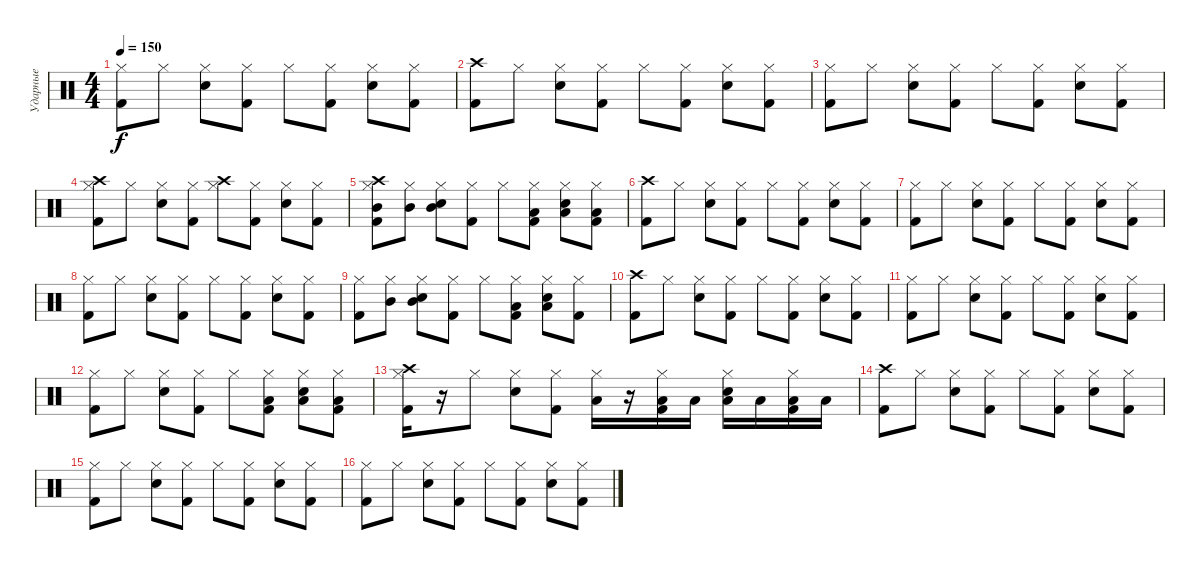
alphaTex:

\track ("Ударные" "Ударные") {instrument percussion}
\staff {score}
\articulation defaults
\ts (4 4)
\tempo 150
\clef neutral
\ks c
("Hi-Hat (closed)" "Kick (hit) 2").8{dy f} "Hi-Hat (closed)".8 ("Hi-Hat (closed)" "Snare (hit) 2").8 ("Hi-Hat (closed)" "Kick (hit) 2").8 "Hi-Hat (closed)".8 ("Hi-Hat (closed)" "Kick (hit) 2").8 ("Hi-Hat (closed)" "Snare (hit) 2").8 ("Hi-Hat (closed)" "Kick (hit) 2").8 |
("Crash high (hit)" "Kick (hit) 2").8 "Hi-Hat (closed)".8 ("Hi-Hat (closed)" "Snare (hit) 2").8 ("Hi-Hat (closed)" "Kick (hit) 2").8 "Hi-Hat (closed)".8 ("Hi-Hat (closed)" "Kick (hit) 2").8 ("Hi-Hat (closed)" "Snare (hit) 2").8 ("Hi-Hat (closed)" "Kick (hit) 2").8 |
("Hi-Hat (closed)" "Kick (hit) 2").8 "Hi-Hat (closed)".8 ("Hi-Hat (closed)" "Snare (hit) 2").8 ("Hi-Hat (closed)" "Kick (hit) 2").8 "Hi-Hat (closed)".8 ("Hi-Hat (closed)" "Kick (hit) 2").8 ("Hi-Hat (closed)" "Snare (hit) 2").8 ("Hi-Hat (closed)" "Kick (hit) 2").8 |
("Hi-Hat (closed)" "Crash high (hit)" "Kick (hit) 2").8 "Hi-Hat (closed)".8 ("Hi-Hat (closed)" "Snare (hit) 2").8 ("Hi-Hat (closed)" "Kick (hit) 2").8 ("Hi-Hat (closed)" "Crash high (hit)").8 ("Hi-Hat (closed)" "Kick (hit) 2").8 ("Hi-Hat (closed)" "Snare (hit) 2").8 ("Hi-Hat (closed)" "Kick (hit) 2").8 |
("Hi-Hat (closed)" "Crash high (hit)" "Mid Tom (hit)" "Kick (hit) 2").8 ("Hi-Hat (closed)" "Mid Tom (hit)").8 ("Hi-Hat (closed)" "Mid Tom (hit)" "Snare (hit) 2").8 ("Hi-Hat (closed)" "Kick (hit) 2").8 "Hi-Hat (closed)".8 ("Hi-Hat (closed)" "Low Tom (hit)" "Kick (hit) 2").8 ("Hi-Hat (closed)" "Low Tom (hit)" "Snare (hit) 2").8 ("Hi-Hat (closed)" "Low Tom (hit)" "Kick (hit) 2").8 |
("Crash high (hit)" "Kick (hit) 2").8 "Hi-Hat (closed)".8 ("Hi-Hat (closed)" "Snare (hit) 2").8 ("Hi-Hat (closed)" "Kick (hit) 2").8 "Hi-Hat (closed)".8 ("Hi-Hat (closed)" "Kick (hit) 2").8 ("Hi-Hat (closed)" "Snare (hit) 2").8 ("Hi-Hat (closed)" "Kick (hit) 2").8 |
("Hi-Hat (closed)" "Kick (hit) 2").8 "Hi-Hat (closed)".8 ("Hi-Hat (closed)" "Snare (hit) 2").8 ("Hi-Hat (closed)" "Kick (hit) 2").8 "Hi-Hat (closed)".8 ("Hi-Hat (closed)" "Kick (hit) 2").8 ("Hi-Hat (closed)" "Snare (hit) 2").8 ("Hi-Hat (closed)" "Kick (hit) 2").8 |
("Hi-Hat (closed)" "Kick (hit) 2").8 "Hi-Hat (closed)".8 ("Hi-Hat (closed)" "Snare (hit) 2").8 ("Hi-Hat (closed)" "Kick (hit) 2").8 "Hi-Hat (closed)".8 ("Hi-Hat (closed)" "Kick (hit) 2").8 ("Hi-Hat (closed)" "Snare (hit) 2").8 ("Hi-Hat (closed)" "Kick (hit) 2").8 |
("Hi-Hat (closed)" "Kick (hit) 2").8 ("Hi-Hat (closed)" "Mid Tom (hit)").8 ("Hi-Hat (closed)" "Mid Tom (hit)" "Snare (hit) 2").8 ("Hi-Hat (closed)" "Kick (hit) 2").8 "Hi-Hat (closed)".8 ("Hi-Hat (closed)" "Low Tom (hit)" "Kick (hit) 2").8 ("Hi-Hat (closed)" "Low Tom (hit)" "Snare (hit) 2").8 ("Hi-Hat (closed)" "Kick (hit) 2").8 |
("Crash high (hit)" "Kick (hit) 2").8 "Hi-Hat (closed)".8 ("Hi-Hat (closed)" "Snare (hit) 2").8 ("Hi-Hat (closed)" "Kick (hit) 2").8 "Hi-Hat (closed)".8 ("Hi-Hat (closed)" "Kick (hit) 2").8 ("Hi-Hat (closed)" "Snare (hit) 2").8 ("Hi-Hat (closed)" "Kick (hit) 2").8 |
("Hi-Hat (closed)" "Kick (hit) 2").8 "Hi-Hat (closed)".8 ("Hi-Hat (closed)" "Snare (hit) 2").8 ("Hi-Hat (closed)" "Kick (hit) 2").8 "Hi-Hat (closed)".8 ("Hi-Hat (closed)" "Kick (hit) 2").8 ("Hi-Hat (closed)" "Snare (hit) 2").8 ("Hi-Hat (closed)" "Kick (hit) 2").8 |
("Hi-Hat (closed)" "Kick (hit) 2").8 "Hi-Hat (closed)".8 ("Hi-Hat (closed)" "Snare (hit) 2").8 ("Hi-Hat (closed)" "Kick (hit) 2").8 "Hi-Hat (closed)".8 ("Hi-Hat (closed)" "Low Tom (hit)" "Kick (hit) 2").8 ("Hi-Hat (closed)" "Low Tom (hit)" "Snare (hit) 2").8 ("Hi-Hat (closed)" "Low Tom (hit)" "Kick (hit) 2").8 |
("Crash high (hit)" "Hi-Hat (closed)" "Kick (hit) 2").16 r.16 "Hi-Hat (closed)".8 ("Hi-Hat (closed)" "Snare (hit) 2").8 ("Hi-Hat (closed)" "Kick (hit) 2").8 ("Low Tom (hit)" "Hi-Hat (closed)").16 r.16 ("Low Tom (hit)" "Hi-Hat (closed)" "Kick (hit) 2").16 "Low Tom (hit)".16 ("Low Tom (hit)" "Hi-Hat (closed)" "Snare (hit) 2").16 "Low Tom (hit)".16 ("Low Tom (hit)" "Hi-Hat (closed)" "Kick (hit) 2").16 "Low Tom (hit)".16 |
("Crash high (hit)" "Kick (hit) 2").8 "Hi-Hat (closed)".8 ("Hi-Hat (closed)" "Snare (hit) 2").8 ("Hi-Hat (closed)" "Kick (hit) 2").8 "Hi-Hat (closed)".8 ("Hi-Hat (closed)" "Kick (hit) 2").8 ("Hi-Hat (closed)" "Snare (hit) 2").8 ("Hi-Hat (closed)" "Kick (hit) 2").8 |
("Hi-Hat (closed)" "Kick (hit) 2").8 "Hi-Hat (closed)".8 ("Hi-Hat (closed)" "Snare (hit) 2").8 ("Hi-Hat (closed)" "Kick (hit) 2").8 "Hi-Hat (closed)".8 ("Hi-Hat (closed)" "Kick (hit) 2").8 ("Hi-Hat (closed)" "Snare (hit) 2").8 ("Hi-Hat (closed)" "Kick (hit) 2").8 |
("Hi-Hat (closed)" "Kick (hit) 2").8 "Hi-Hat (closed)".8 ("Hi-Hat (closed)" "Snare (hit) 2").8 ("Hi-Hat (closed)" "Kick (hit) 2").8 "Hi-Hat (closed)".8 ("Hi-Hat (closed)" "Kick (hit) 2").8 ("Hi-Hat (closed)" "Snare (hit) 2").8 ("Hi-Hat (closed)" "Kick (hit) 2").8
